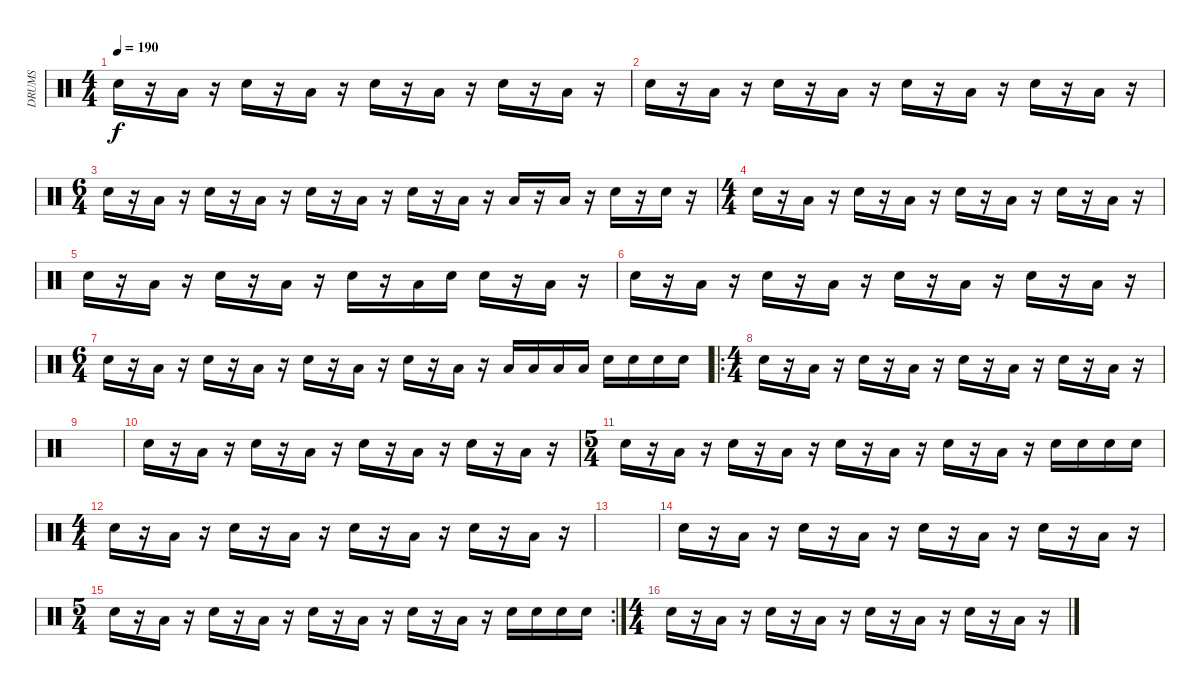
\track ("DRUMS" "DRUMS") {instrument percussion}
\staff {score}
\articulation defaults
\ts (4 4)
\tempo 190
\clef neutral
\ks c "Electric Snare (hit)".16{dy f}
r.16 "Low Tom (hit)".16 r.16 "Electric Snare (hit)".16 r.16 "Low Tom (hit)".16 r.16 "Electric Snare (hit)".16 r.16 "Low Tom (hit)".16 r.16 "Electric Snare (hit)".16 r.16 "Low Tom (hit)".16 r.16 |
"Electric Snare (hit)".16 r.16 "Low Tom (hit)".16 r.16 "Electric Snare (hit)".16 r.16 "Low Tom (hit)".16 r.16 "Electric Snare (hit)".16 r.16 "Low Tom (hit)".16 r.16 "Electric Snare (hit)".16 r.16 "Low Tom (hit)".16 r.16 |
\ts (6 4)
"Electric Snare (hit)".16 r.16 "Low Tom (hit)".16 r.16 "Electric Snare (hit)".16 r.16 "Low Tom (hit)".16 r.16 "Electric Snare (hit)".16 r.16 "Low Tom (hit)".16 r.16 "Electric Snare (hit)".16 r.16 "Low Tom (hit)".16 r.16 "Low Tom (hit)".16 r.16 "Low Tom (hit)".16 r.16 "Electric Snare (hit)".16 r.16 "Electric Snare (hit)".16 r.16 |
\ts (4 4)
"Electric Snare (hit)".16 r.16 "Low Tom (hit)".16 r.16 "Electric Snare (hit)".16 r.16 "Low Tom (hit)".16 r.16 "Electric Snare (hit)".16 r.16 "Low Tom (hit)".16 r.16 "Electric Snare (hit)".16 r.16 "Low Tom (hit)".16 r.16 |
"Electric Snare (hit)".16 r.16 "Low Tom (hit)".16 r.16 "Electric Snare (hit)".16 r.16 "Low Tom (hit)".16 r.16 "Electric Snare (hit)".16 r.16 "Low Tom (hit)".16 "Electric Snare (hit)".16 "Electric Snare (hit)".16 r.16 "Low Tom (hit)".16 r.16 |
"Electric Snare (hit)".16 r.16 "Low Tom (hit)".16 r.16 "Electric Snare (hit)".16 r.16 "Low Tom (hit)".16 r.16 "Electric Snare (hit)".16 r.16 "Low Tom (hit)".16 r.16 "Electric Snare (hit)".16 r.16 "Low Tom (hit)".16 r.16 |
\ts (6 4)
"Electric Snare (hit)".16 r.16 "Low Tom (hit)".16 r.16 "Electric Snare (hit)".16 r.16 "Low Tom (hit)".16 r.16 "Electric Snare (hit)".16 r.16 "Low Tom (hit)".16 r.16 "Electric Snare (hit)".16 r.16 "Low Tom (hit)".16 r.16 "Low Tom (hit)".16 "Low Tom (hit)".16 "Low Tom (hit)".16 "Low Tom (hit)".16 "Electric Snare (hit)".16 "Electric Snare (hit)".16 "Electric Snare (hit)".16 "Electric Snare (hit)".16 |
\ro
\ts (4 4)
"Electric Snare (hit)".16 r.16 "Low Tom (hit)".16 r.16 "Electric Snare (hit)".16 r.16 "Low Tom (hit)".16 r.16 "Electric Snare (hit)".16 r.16 "Low Tom (hit)".16 r.16 "Electric Snare (hit)".16 r.16 "Low Tom (hit)".16 r.16 |
|
"Electric Snare (hit)".16 r.16 "Low Tom (hit)".16 r.16 "Electric Snare (hit)".16 r.16 "Low Tom (hit)".16 r.16 "Electric Snare (hit)".16 r.16 "Low Tom (hit)".16 r.16 "Electric Snare (hit)".16 r.16 "Low Tom (hit)".16 r.16 |
\ts (5 4)
"Electric Snare (hit)".16 r.16 "Low Tom (hit)".16 r.16 "Electric Snare (hit)".16 r.16 "Low Tom (hit)".16 r.16 "Electric Snare (hit)".16 r.16 "Low Tom (hit)".16 r.16 "Electric Snare (hit)".16 r.16 "Low Tom (hit)".16 r.16 "Electric Snare (hit)".16 "Electric Snare (hit)".16 "Electric Snare (hit)".16 "Electric Snare (hit)".16 |
\ts (4 4)
"Electric Snare (hit)".16 r.16 "Low Tom (hit)".16 r.16 "Electric Snare (hit)".16 r.16 "Low Tom (hit)".16 r.16 "Electric Snare (hit)".16 r.16 "Low Tom (hit)".16 r.16 "Electric Snare (hit)".16 r.16 "Low Tom (hit)".16 r.16 |
|
"Electric Snare (hit)".16 r.16 "Low Tom (hit)".16 r.16 "Electric Snare (hit)".16 r.16 "Low Tom (hit)".16 r.16 "Electric Snare (hit)".16 r.16 "Low Tom (hit)".16 r.16 "Electric Snare (hit)".16 r.16 "Low Tom (hit)".16 r.16 |
\rc 2
\ts (5 4)
"Electric Snare (hit)".16 r.16 "Low Tom (hit)".16 r.16 "Electric Snare (hit)".16 r.16 "Low Tom (hit)".16 r.16 "Electric Snare (hit)".16 r.16 "Low Tom (hit)".16 r.16 "Electric Snare (hit)".16 r.16 "Low Tom (hit)".16 r.16 "Electric Snare (hit)".16 "Electric Snare (hit)".16 "Electric Snare (hit)".16 "Electric Snare (hit)".16 |
\ts (4 4)
"Electric Snare (hit)".16 r.16 "Low Tom (hit)".16 r.16 "Electric Snare (hit)".16 r.16 "Low Tom (hit)".16 r.16 "Electric Snare (hit)".16 r.16 "Low Tom (hit)".16 r.16 "Electric Snare (hit)".16 r.16 "Low Tom (hit)".16 r.16
